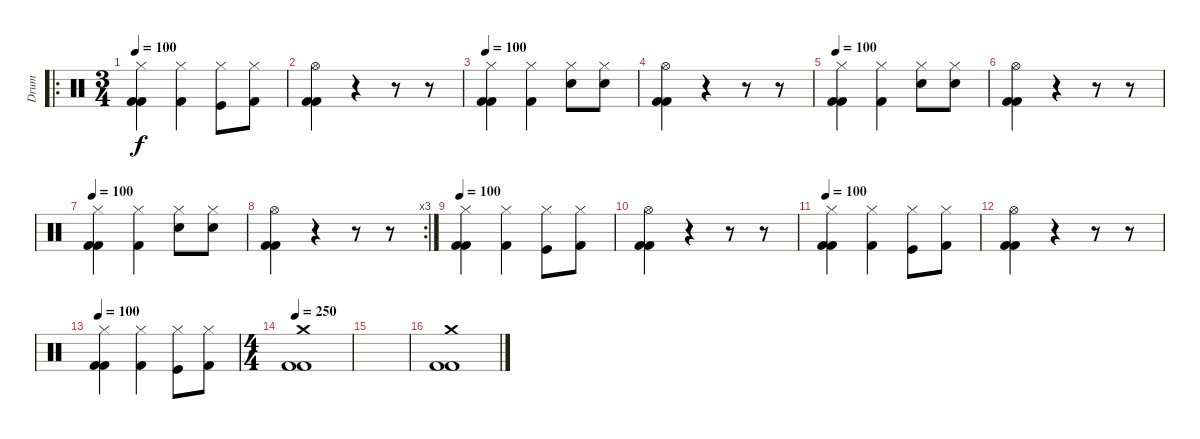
\track ("Drum" "Drum") {instrument percussion}
\staff {score}
\articulation defaults
\ro
\ts (3 4)
\tempo 100
\clef neutral
\ks c
("Hi-Hat (closed)" "Kick (hit) 2" "Kick (hit) 2").4{dy f} ("Hi-Hat (closed)" "Kick (hit) 2").4 ("Hi-Hat (closed)" "Kick (hit)").8 ("Hi-Hat (closed)" "Kick (hit) 2").8 |
("Hi-Hat (open)" "Kick (hit) 2" "Kick (hit) 2").4 r.4 r.8 r.8 |
\tempo 100
("Hi-Hat (closed)" "Kick (hit) 2" "Kick (hit) 2").4 ("Hi-Hat (closed)" "Kick (hit) 2").4 ("Hi-Hat (closed)" "Snare (hit) 2").8 ("Hi-Hat (closed)" "Snare (hit) 2").8 |
("Hi-Hat (open)" "Kick (hit) 2" "Kick (hit) 2").4 r.4 r.8 r.8 |
\tempo 100
("Hi-Hat (closed)" "Kick (hit) 2" "Kick (hit) 2").4 ("Hi-Hat (closed)" "Kick (hit) 2").4 ("Hi-Hat (closed)" "Snare (hit) 2").8 ("Hi-Hat (closed)" "Snare (hit) 2").8 |
("Hi-Hat (open)" "Kick (hit) 2" "Kick (hit) 2").4 r.4 r.8 r.8 |
\tempo 100
("Hi-Hat (closed)" "Kick (hit) 2" "Kick (hit) 2").4 ("Hi-Hat (closed)" "Kick (hit) 2").4 ("Hi-Hat (closed)" "Snare (hit) 2").8 ("Hi-Hat (closed)" "Snare (hit) 2").8 |
\rc 3
("Hi-Hat (open)" "Kick (hit) 2" "Kick (hit) 2").4 r.4 r.8 r.8 |
\tempo 100
("Hi-Hat (closed)" "Kick (hit) 2" "Kick (hit) 2").4 ("Hi-Hat (closed)" "Kick (hit) 2").4 ("Hi-Hat (closed)" "Kick (hit)").8 ("Hi-Hat (closed)" "Kick (hit) 2").8 |
("Hi-Hat (open)" "Kick (hit) 2" "Kick (hit) 2").4 r.4 r.8 r.8 |
\tempo 100
("Hi-Hat (closed)" "Kick (hit) 2" "Kick (hit) 2").4 ("Hi-Hat (closed)" "Kick (hit) 2").4 ("Hi-Hat (closed)" "Kick (hit)").8 ("Hi-Hat (closed)" "Kick (hit) 2").8 |
("Hi-Hat (open)" "Kick (hit) 2" "Kick (hit) 2").4 r.4 r.8 r.8 |
\tempo 100
("Hi-Hat (closed)" "Kick (hit) 2" "Kick (hit) 2").4 ("Hi-Hat (closed)" "Kick (hit) 2").4 ("Hi-Hat (closed)" "Kick (hit)").8 ("Hi-Hat (closed)" "Kick (hit) 2").8 |
\ts (4 4)
\tempo 250
("Crash medium (hit)" "Kick (hit) 2" "Kick (hit) 2").1 |
|
("Crash medium (hit)" "Kick (hit) 2" "Kick (hit) 2").1
